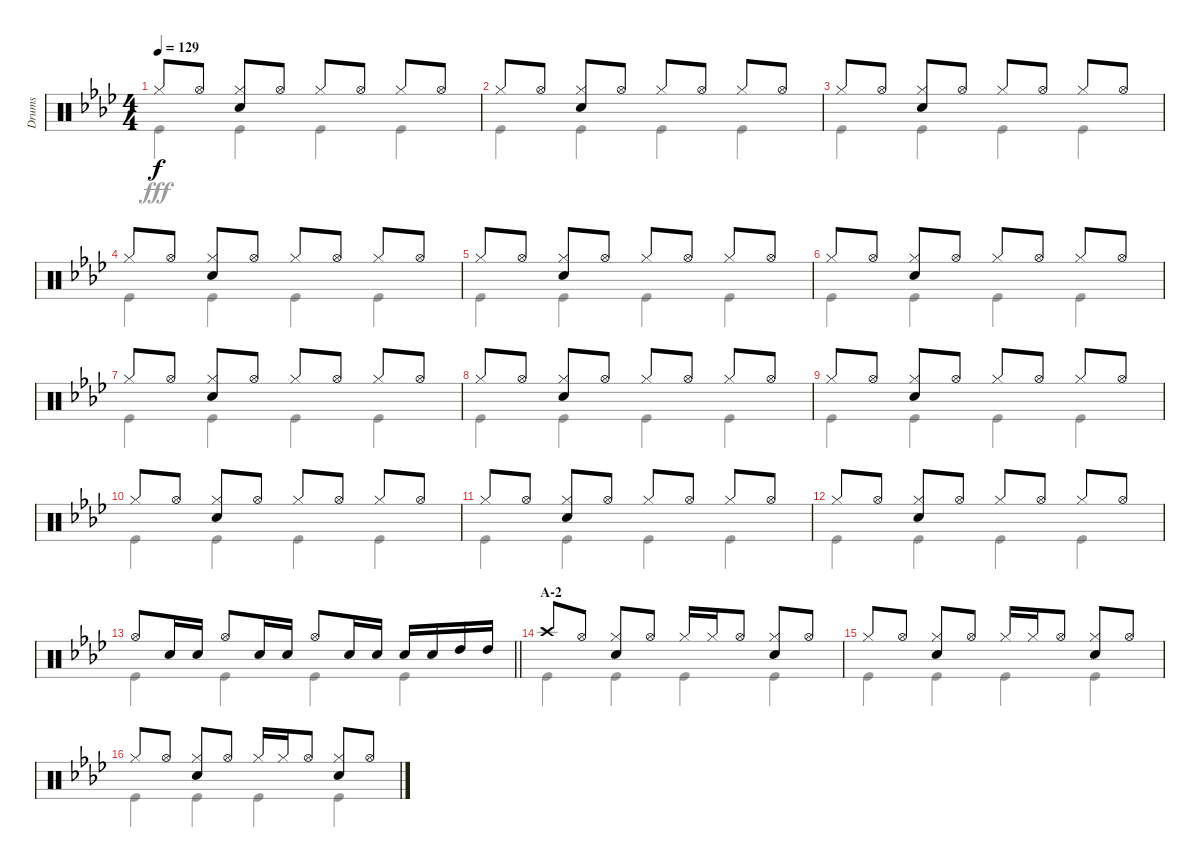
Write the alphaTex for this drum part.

\track ("Drums" "Drums") {instrument percussion}
\staff {score}
\articulation defaults
\voice
\ts (4 4)
\tempo 129
\clef neutral
\ks ab "Hi-Hat (closed)".8{dy f} "Hi-Hat (open)".8
("Hi-Hat (closed)" "Snare (hit) 2").8 "Hi-Hat (open)".8 "Hi-Hat (closed)".8 "Hi-Hat (open)".8 "Hi-Hat (closed)".8 "Hi-Hat (open)".8 |
"Hi-Hat (closed)".8 "Hi-Hat (open)".8 ("Hi-Hat (closed)" "Snare (hit) 2").8 "Hi-Hat (open)".8 "Hi-Hat (closed)".8 "Hi-Hat (open)".8 "Hi-Hat (closed)".8 "Hi-Hat (open)".8 |
"Hi-Hat (closed)".8 "Hi-Hat (open)".8 ("Hi-Hat (closed)" "Snare (hit) 2").8 "Hi-Hat (open)".8 "Hi-Hat (closed)".8 "Hi-Hat (open)".8 "Hi-Hat (closed)".8 "Hi-Hat (open)".8 |
"Hi-Hat (closed)".8 "Hi-Hat (open)".8 ("Hi-Hat (closed)" "Snare (hit) 2").8 "Hi-Hat (open)".8 "Hi-Hat (closed)".8 "Hi-Hat (open)".8 "Hi-Hat (closed)".8 "Hi-Hat (open)".8 |
"Hi-Hat (closed)".8 "Hi-Hat (open)".8 ("Hi-Hat (closed)" "Snare (hit) 2").8 "Hi-Hat (open)".8 "Hi-Hat (closed)".8 "Hi-Hat (open)".8 "Hi-Hat (closed)".8 "Hi-Hat (open)".8 |
"Hi-Hat (closed)".8 "Hi-Hat (open)".8 ("Hi-Hat (closed)" "Snare (hit) 2").8 "Hi-Hat (open)".8 "Hi-Hat (closed)".8 "Hi-Hat (open)".8 "Hi-Hat (closed)".8 "Hi-Hat (open)".8 |
"Hi-Hat (closed)".8 "Hi-Hat (open)".8 ("Hi-Hat (closed)" "Snare (hit) 2").8 "Hi-Hat (open)".8 "Hi-Hat (closed)".8 "Hi-Hat (open)".8 "Hi-Hat (closed)".8 "Hi-Hat (open)".8 |
"Hi-Hat (closed)".8 "Hi-Hat (open)".8 ("Hi-Hat (closed)" "Snare (hit) 2").8 "Hi-Hat (open)".8 "Hi-Hat (closed)".8 "Hi-Hat (open)".8 "Hi-Hat (closed)".8 "Hi-Hat (open)".8 |
"Hi-Hat (closed)".8 "Hi-Hat (open)".8 ("Hi-Hat (closed)" "Snare (hit) 2").8 "Hi-Hat (open)".8 "Hi-Hat (closed)".8 "Hi-Hat (open)".8 "Hi-Hat (closed)".8 "Hi-Hat (open)".8 |
"Hi-Hat (closed)".8 "Hi-Hat (open)".8 ("Hi-Hat (closed)" "Snare (hit) 2").8 "Hi-Hat (open)".8 "Hi-Hat (closed)".8 "Hi-Hat (open)".8 "Hi-Hat (closed)".8 "Hi-Hat (open)".8 |
"Hi-Hat (closed)".8 "Hi-Hat (open)".8 ("Hi-Hat (closed)" "Snare (hit) 2").8 "Hi-Hat (open)".8 "Hi-Hat (closed)".8 "Hi-Hat (open)".8 "Hi-Hat (closed)".8 "Hi-Hat (open)".8 |
"Hi-Hat (closed)".8 "Hi-Hat (open)".8 ("Hi-Hat (closed)" "Snare (hit) 2").8 "Hi-Hat (open)".8 "Hi-Hat (closed)".8 "Hi-Hat (open)".8 "Hi-Hat (closed)".8 "Hi-Hat (open)".8 |
\barLineRight lightlight "Hi-Hat (open)".8 "Snare (hit) 2".16 "Snare (hit) 2".16 "Hi-Hat (open)".8 "Snare (hit) 2".16 "Snare (hit) 2".16 "Hi-Hat (open)".8 "Snare (hit) 2".16 "Snare (hit) 2".16 "Snare (hit) 2".16 "Snare (hit) 2".16 "High Tom (hit)".16 "High Tom (hit)".16
|
\section ("" "A-2")
"Crash high (hit)".8 "Hi-Hat (open)".8 ("Hi-Hat (closed)" "Snare (hit) 2").8 "Hi-Hat (open)".8 "Hi-Hat (closed)".16 "Hi-Hat (closed)".16 "Hi-Hat (open)".8 ("Hi-Hat (closed)" "Snare (hit) 2").8 "Hi-Hat (open)".8 |
"Hi-Hat (closed)".8 "Hi-Hat (open)".8 ("Hi-Hat (closed)" "Snare (hit) 2").8 "Hi-Hat (open)".8 "Hi-Hat (closed)".16 "Hi-Hat (closed)".16 "Hi-Hat (open)".8 ("Hi-Hat (closed)" "Snare (hit) 2").8 "Hi-Hat (open)".8 |
"Hi-Hat (closed)".8 "Hi-Hat (open)".8 ("Hi-Hat (closed)" "Snare (hit) 2").8 "Hi-Hat (open)".8 "Hi-Hat (closed)".16 "Hi-Hat (closed)".16 "Hi-Hat (open)".8 ("Hi-Hat (closed)" "Snare (hit) 2").8 "Hi-Hat (open)".8
\voice
\clef neutral
\ottava regular
\simile none
\ks ab "Kick (hit)".4{dy fff} "Kick (hit)".4 "Kick (hit)".4 "Kick (hit)".4
|
"Kick (hit)".4 "Kick (hit)".4 "Kick (hit)".4 "Kick (hit)".4 |
"Kick (hit)".4 "Kick (hit)".4 "Kick (hit)".4 "Kick (hit)".4 |
"Kick (hit)".4 "Kick (hit)".4 "Kick (hit)".4 "Kick (hit)".4 |
"Kick (hit)".4 "Kick (hit)".4 "Kick (hit)".4 "Kick (hit)".4 |
"Kick (hit)".4 "Kick (hit)".4 "Kick (hit)".4 "Kick (hit)".4 |
"Kick (hit)".4 "Kick (hit)".4 "Kick (hit)".4 "Kick (hit)".4 |
"Kick (hit)".4 "Kick (hit)".4 "Kick (hit)".4 "Kick (hit)".4 |
"Kick (hit)".4 "Kick (hit)".4 "Kick (hit)".4 "Kick (hit)".4 |
"Kick (hit)".4 "Kick (hit)".4 "Kick (hit)".4 "Kick (hit)".4 |
"Kick (hit)".4 "Kick (hit)".4 "Kick (hit)".4 "Kick (hit)".4 |
"Kick (hit)".4 "Kick (hit)".4 "Kick (hit)".4 "Kick (hit)".4 |
\barLineRight lightlight "Kick (hit)".4 "Kick (hit)".4 "Kick (hit)".4 "Kick (hit)".4
|
"Kick (hit)".4 "Kick (hit)".4 "Kick (hit)".4 "Kick (hit)".4 |
"Kick (hit)".4 "Kick (hit)".4 "Kick (hit)".4 "Kick (hit)".4 |
"Kick (hit)".4 "Kick (hit)".4 "Kick (hit)".4 "Kick (hit)".4
